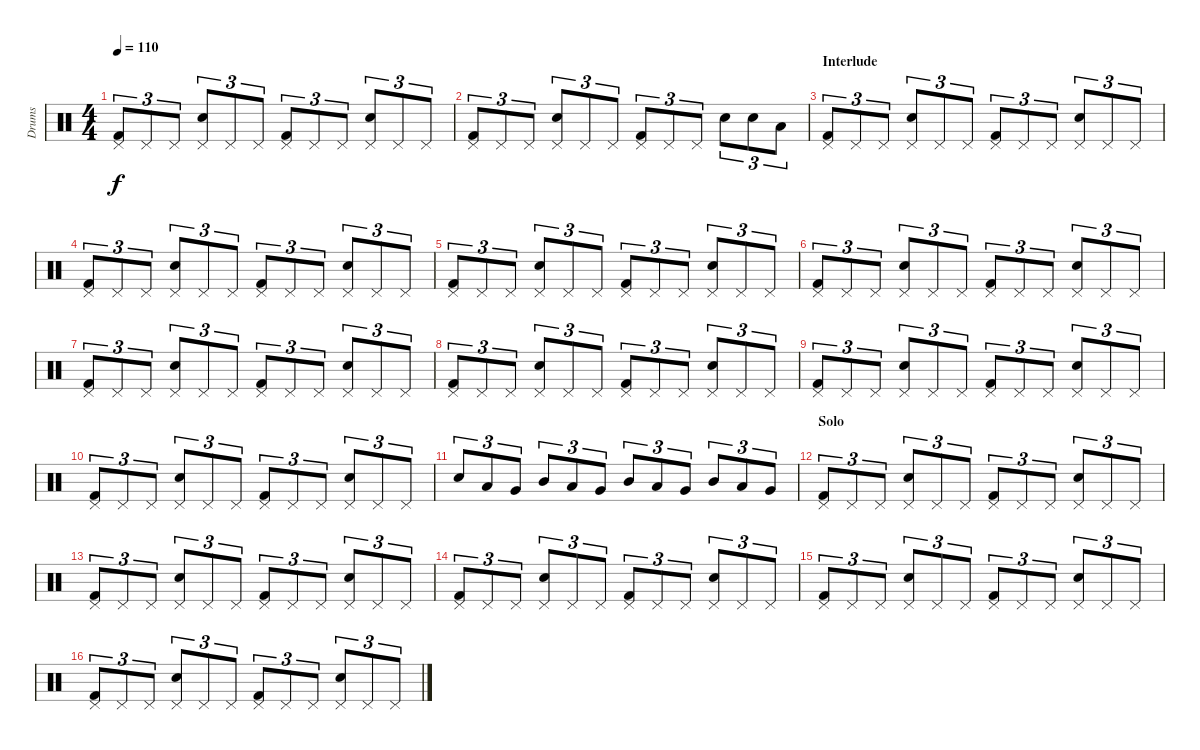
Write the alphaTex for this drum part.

\track ("Drums" "Drums") {instrument percussion}
\staff {score}
\articulation defaults
\ts (4 4)
\tempo 110
\clef neutral
\ks c
("Pedal Hi-Hat (hit)" "Kick (hit) 2").8{tu (3 2) dy f} "Pedal Hi-Hat (hit)".8{tu (3 2)} "Pedal Hi-Hat (hit)".8{tu (3 2)} ("Pedal Hi-Hat (hit)" "Electric Snare (hit)").8{tu (3 2)} "Pedal Hi-Hat (hit)".8{tu (3 2)} "Pedal Hi-Hat (hit)".8{tu (3 2)} ("Pedal Hi-Hat (hit)" "Kick (hit) 2").8{tu (3 2)} "Pedal Hi-Hat (hit)".8{tu (3 2)} "Pedal Hi-Hat (hit)".8{tu (3 2)} ("Pedal Hi-Hat (hit)" "Electric Snare (hit)").8{tu (3 2)} "Pedal Hi-Hat (hit)".8{tu (3 2)} "Pedal Hi-Hat (hit)".8{tu (3 2)} |
("Pedal Hi-Hat (hit)" "Kick (hit) 2").8{tu (3 2)} "Pedal Hi-Hat (hit)".8{tu (3 2)} "Pedal Hi-Hat (hit)".8{tu (3 2)} ("Pedal Hi-Hat (hit)" "Electric Snare (hit)").8{tu (3 2)} "Pedal Hi-Hat (hit)".8{tu (3 2)} "Pedal Hi-Hat (hit)".8{tu (3 2)} ("Pedal Hi-Hat (hit)" "Kick (hit) 2").8{tu (3 2)} "Pedal Hi-Hat (hit)".8{tu (3 2)} "Pedal Hi-Hat (hit)".8{tu (3 2)} "Electric Snare (hit)".8{tu (3 2)} "Electric Snare (hit)".8{tu (3 2)} "Low Tom (hit)".8{tu (3 2)} |
\section ("" "Interlude")
("Pedal Hi-Hat (hit)" "Kick (hit) 2").8{tu (3 2)} "Pedal Hi-Hat (hit)".8{tu (3 2)} "Pedal Hi-Hat (hit)".8{tu (3 2)} ("Pedal Hi-Hat (hit)" "Electric Snare (hit)").8{tu (3 2)} "Pedal Hi-Hat (hit)".8{tu (3 2)} "Pedal Hi-Hat (hit)".8{tu (3 2)} ("Pedal Hi-Hat (hit)" "Kick (hit) 2").8{tu (3 2)} "Pedal Hi-Hat (hit)".8{tu (3 2)} "Pedal Hi-Hat (hit)".8{tu (3 2)} ("Pedal Hi-Hat (hit)" "Electric Snare (hit)").8{tu (3 2)} "Pedal Hi-Hat (hit)".8{tu (3 2)} "Pedal Hi-Hat (hit)".8{tu (3 2)} |
("Pedal Hi-Hat (hit)" "Kick (hit) 2").8{tu (3 2)} "Pedal Hi-Hat (hit)".8{tu (3 2)} "Pedal Hi-Hat (hit)".8{tu (3 2)} ("Pedal Hi-Hat (hit)" "Electric Snare (hit)").8{tu (3 2)} "Pedal Hi-Hat (hit)".8{tu (3 2)} "Pedal Hi-Hat (hit)".8{tu (3 2)} ("Pedal Hi-Hat (hit)" "Kick (hit) 2").8{tu (3 2)} "Pedal Hi-Hat (hit)".8{tu (3 2)} "Pedal Hi-Hat (hit)".8{tu (3 2)} ("Pedal Hi-Hat (hit)" "Electric Snare (hit)").8{tu (3 2)} "Pedal Hi-Hat (hit)".8{tu (3 2)} "Pedal Hi-Hat (hit)".8{tu (3 2)} |
("Pedal Hi-Hat (hit)" "Kick (hit) 2").8{tu (3 2)} "Pedal Hi-Hat (hit)".8{tu (3 2)} "Pedal Hi-Hat (hit)".8{tu (3 2)} ("Pedal Hi-Hat (hit)" "Electric Snare (hit)").8{tu (3 2)} "Pedal Hi-Hat (hit)".8{tu (3 2)} "Pedal Hi-Hat (hit)".8{tu (3 2)} ("Pedal Hi-Hat (hit)" "Kick (hit) 2").8{tu (3 2)} "Pedal Hi-Hat (hit)".8{tu (3 2)} "Pedal Hi-Hat (hit)".8{tu (3 2)} ("Pedal Hi-Hat (hit)" "Electric Snare (hit)").8{tu (3 2)} "Pedal Hi-Hat (hit)".8{tu (3 2)} "Pedal Hi-Hat (hit)".8{tu (3 2)} |
("Pedal Hi-Hat (hit)" "Kick (hit) 2").8{tu (3 2)} "Pedal Hi-Hat (hit)".8{tu (3 2)} "Pedal Hi-Hat (hit)".8{tu (3 2)} ("Pedal Hi-Hat (hit)" "Electric Snare (hit)").8{tu (3 2)} "Pedal Hi-Hat (hit)".8{tu (3 2)} "Pedal Hi-Hat (hit)".8{tu (3 2)} ("Pedal Hi-Hat (hit)" "Kick (hit) 2").8{tu (3 2)} "Pedal Hi-Hat (hit)".8{tu (3 2)} "Pedal Hi-Hat (hit)".8{tu (3 2)} ("Pedal Hi-Hat (hit)" "Electric Snare (hit)").8{tu (3 2)} "Pedal Hi-Hat (hit)".8{tu (3 2)} "Pedal Hi-Hat (hit)".8{tu (3 2)} |
("Pedal Hi-Hat (hit)" "Kick (hit) 2").8{tu (3 2)} "Pedal Hi-Hat (hit)".8{tu (3 2)} "Pedal Hi-Hat (hit)".8{tu (3 2)} ("Pedal Hi-Hat (hit)" "Electric Snare (hit)").8{tu (3 2)} "Pedal Hi-Hat (hit)".8{tu (3 2)} "Pedal Hi-Hat (hit)".8{tu (3 2)} ("Pedal Hi-Hat (hit)" "Kick (hit) 2").8{tu (3 2)} "Pedal Hi-Hat (hit)".8{tu (3 2)} "Pedal Hi-Hat (hit)".8{tu (3 2)} ("Pedal Hi-Hat (hit)" "Electric Snare (hit)").8{tu (3 2)} "Pedal Hi-Hat (hit)".8{tu (3 2)} "Pedal Hi-Hat (hit)".8{tu (3 2)} |
("Pedal Hi-Hat (hit)" "Kick (hit) 2").8{tu (3 2)} "Pedal Hi-Hat (hit)".8{tu (3 2)} "Pedal Hi-Hat (hit)".8{tu (3 2)} ("Pedal Hi-Hat (hit)" "Electric Snare (hit)").8{tu (3 2)} "Pedal Hi-Hat (hit)".8{tu (3 2)} "Pedal Hi-Hat (hit)".8{tu (3 2)} ("Pedal Hi-Hat (hit)" "Kick (hit) 2").8{tu (3 2)} "Pedal Hi-Hat (hit)".8{tu (3 2)} "Pedal Hi-Hat (hit)".8{tu (3 2)} ("Pedal Hi-Hat (hit)" "Electric Snare (hit)").8{tu (3 2)} "Pedal Hi-Hat (hit)".8{tu (3 2)} "Pedal Hi-Hat (hit)".8{tu (3 2)} |
("Pedal Hi-Hat (hit)" "Kick (hit) 2").8{tu (3 2)} "Pedal Hi-Hat (hit)".8{tu (3 2)} "Pedal Hi-Hat (hit)".8{tu (3 2)} ("Pedal Hi-Hat (hit)" "Electric Snare (hit)").8{tu (3 2)} "Pedal Hi-Hat (hit)".8{tu (3 2)} "Pedal Hi-Hat (hit)".8{tu (3 2)} ("Pedal Hi-Hat (hit)" "Kick (hit) 2").8{tu (3 2)} "Pedal Hi-Hat (hit)".8{tu (3 2)} "Pedal Hi-Hat (hit)".8{tu (3 2)} ("Pedal Hi-Hat (hit)" "Electric Snare (hit)").8{tu (3 2)} "Pedal Hi-Hat (hit)".8{tu (3 2)} "Pedal Hi-Hat (hit)".8{tu (3 2)} |
("Pedal Hi-Hat (hit)" "Kick (hit) 2").8{tu (3 2)} "Pedal Hi-Hat (hit)".8{tu (3 2)} "Pedal Hi-Hat (hit)".8{tu (3 2)} ("Pedal Hi-Hat (hit)" "Electric Snare (hit)").8{tu (3 2)} "Pedal Hi-Hat (hit)".8{tu (3 2)} "Pedal Hi-Hat (hit)".8{tu (3 2)} ("Pedal Hi-Hat (hit)" "Kick (hit) 2").8{tu (3 2)} "Pedal Hi-Hat (hit)".8{tu (3 2)} "Pedal Hi-Hat (hit)".8{tu (3 2)} ("Pedal Hi-Hat (hit)" "Electric Snare (hit)").8{tu (3 2)} "Pedal Hi-Hat (hit)".8{tu (3 2)} "Pedal Hi-Hat (hit)".8{tu (3 2)} |
"Electric Snare (hit)".8{tu (3 2)} "Low Tom (hit)".8{tu (3 2)} "Very Low Tom (hit)".8{tu (3 2)} "Mid Tom (hit)".8{tu (3 2)} "Low Tom (hit)".8{tu (3 2)} "Very Low Tom (hit)".8{tu (3 2)} "Mid Tom (hit)".8{tu (3 2)} "Low Tom (hit)".8{tu (3 2)} "Very Low Tom (hit)".8{tu (3 2)} "Mid Tom (hit)".8{tu (3 2)} "Low Tom (hit)".8{tu (3 2)} "Very Low Tom (hit)".8{tu (3 2)} |
\section ("" "Solo")
("Pedal Hi-Hat (hit)" "Kick (hit) 2").8{tu (3 2)} "Pedal Hi-Hat (hit)".8{tu (3 2)} "Pedal Hi-Hat (hit)".8{tu (3 2)} ("Pedal Hi-Hat (hit)" "Electric Snare (hit)").8{tu (3 2)} "Pedal Hi-Hat (hit)".8{tu (3 2)} "Pedal Hi-Hat (hit)".8{tu (3 2)} ("Pedal Hi-Hat (hit)" "Kick (hit) 2").8{tu (3 2)} "Pedal Hi-Hat (hit)".8{tu (3 2)} "Pedal Hi-Hat (hit)".8{tu (3 2)} ("Pedal Hi-Hat (hit)" "Electric Snare (hit)").8{tu (3 2)} "Pedal Hi-Hat (hit)".8{tu (3 2)} "Pedal Hi-Hat (hit)".8{tu (3 2)} |
("Pedal Hi-Hat (hit)" "Kick (hit) 2").8{tu (3 2)} "Pedal Hi-Hat (hit)".8{tu (3 2)} "Pedal Hi-Hat (hit)".8{tu (3 2)} ("Pedal Hi-Hat (hit)" "Electric Snare (hit)").8{tu (3 2)} "Pedal Hi-Hat (hit)".8{tu (3 2)} "Pedal Hi-Hat (hit)".8{tu (3 2)} ("Pedal Hi-Hat (hit)" "Kick (hit) 2").8{tu (3 2)} "Pedal Hi-Hat (hit)".8{tu (3 2)} "Pedal Hi-Hat (hit)".8{tu (3 2)} ("Pedal Hi-Hat (hit)" "Electric Snare (hit)").8{tu (3 2)} "Pedal Hi-Hat (hit)".8{tu (3 2)} "Pedal Hi-Hat (hit)".8{tu (3 2)} |
("Pedal Hi-Hat (hit)" "Kick (hit) 2").8{tu (3 2)} "Pedal Hi-Hat (hit)".8{tu (3 2)} "Pedal Hi-Hat (hit)".8{tu (3 2)} ("Pedal Hi-Hat (hit)" "Electric Snare (hit)").8{tu (3 2)} "Pedal Hi-Hat (hit)".8{tu (3 2)} "Pedal Hi-Hat (hit)".8{tu (3 2)} ("Pedal Hi-Hat (hit)" "Kick (hit) 2").8{tu (3 2)} "Pedal Hi-Hat (hit)".8{tu (3 2)} "Pedal Hi-Hat (hit)".8{tu (3 2)} ("Pedal Hi-Hat (hit)" "Electric Snare (hit)").8{tu (3 2)} "Pedal Hi-Hat (hit)".8{tu (3 2)} "Pedal Hi-Hat (hit)".8{tu (3 2)} |
("Pedal Hi-Hat (hit)" "Kick (hit) 2").8{tu (3 2)} "Pedal Hi-Hat (hit)".8{tu (3 2)} "Pedal Hi-Hat (hit)".8{tu (3 2)} ("Pedal Hi-Hat (hit)" "Electric Snare (hit)").8{tu (3 2)} "Pedal Hi-Hat (hit)".8{tu (3 2)} "Pedal Hi-Hat (hit)".8{tu (3 2)} ("Pedal Hi-Hat (hit)" "Kick (hit) 2").8{tu (3 2)} "Pedal Hi-Hat (hit)".8{tu (3 2)} "Pedal Hi-Hat (hit)".8{tu (3 2)} ("Pedal Hi-Hat (hit)" "Electric Snare (hit)").8{tu (3 2)} "Pedal Hi-Hat (hit)".8{tu (3 2)} "Pedal Hi-Hat (hit)".8{tu (3 2)} |
("Pedal Hi-Hat (hit)" "Kick (hit) 2").8{tu (3 2)} "Pedal Hi-Hat (hit)".8{tu (3 2)} "Pedal Hi-Hat (hit)".8{tu (3 2)} ("Pedal Hi-Hat (hit)" "Electric Snare (hit)").8{tu (3 2)} "Pedal Hi-Hat (hit)".8{tu (3 2)} "Pedal Hi-Hat (hit)".8{tu (3 2)} ("Pedal Hi-Hat (hit)" "Kick (hit) 2").8{tu (3 2)} "Pedal Hi-Hat (hit)".8{tu (3 2)} "Pedal Hi-Hat (hit)".8{tu (3 2)} ("Pedal Hi-Hat (hit)" "Electric Snare (hit)").8{tu (3 2)} "Pedal Hi-Hat (hit)".8{tu (3 2)} "Pedal Hi-Hat (hit)".8{tu (3 2)}
